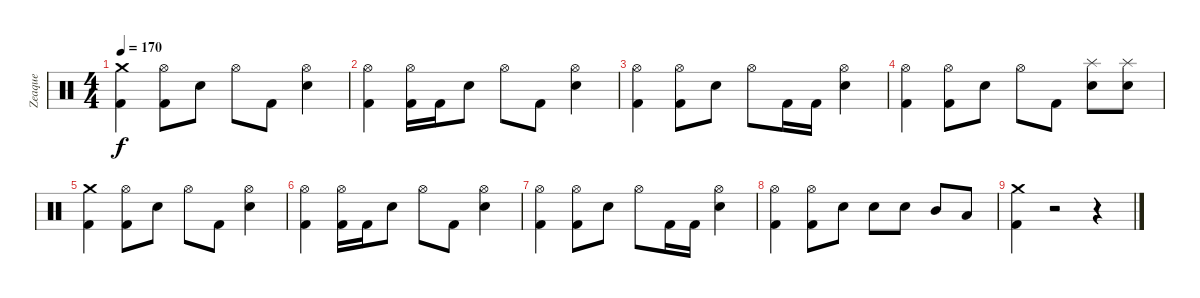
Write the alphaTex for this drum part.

\track ("Zeaque" "Zeaque") {instrument percussion}
\staff {score}
\articulation defaults
\ts (4 4)
\tempo 170
\clef neutral
\ks c
("Crash medium (hit)" "Kick (hit) 2").4{dy f} ("Hi-Hat (open)" "Kick (hit) 2").8 "Electric Snare (hit)".8 "Hi-Hat (open)".8 "Kick (hit) 2".8 ("Hi-Hat (open)" "Electric Snare (hit)").4 |
("Hi-Hat (open)" "Kick (hit) 2").4 ("Hi-Hat (open)" "Kick (hit) 2").16 "Kick (hit) 2".16 "Electric Snare (hit)".8 "Hi-Hat (open)".8 "Kick (hit) 2".8 ("Hi-Hat (open)" "Electric Snare (hit)").4 |
("Hi-Hat (open)" "Kick (hit) 2").4 ("Hi-Hat (open)" "Kick (hit) 2").8 "Electric Snare (hit)".8 "Hi-Hat (open)".8 "Kick (hit) 2".16 "Kick (hit) 2".16 ("Hi-Hat (open)" "Electric Snare (hit)").4 |
("Hi-Hat (open)" "Kick (hit) 2").4 ("Hi-Hat (open)" "Kick (hit) 2").8 "Electric Snare (hit)".8 "Hi-Hat (open)".8 "Kick (hit) 2".8 ("Splash (hit)" "Electric Snare (hit)").8 ("Splash (hit)" "Electric Snare (hit)").8 |
("Crash medium (hit)" "Kick (hit) 2").4 ("Hi-Hat (open)" "Kick (hit) 2").8 "Electric Snare (hit)".8 "Hi-Hat (open)".8 "Kick (hit) 2".8 ("Hi-Hat (open)" "Electric Snare (hit)").4 |
("Hi-Hat (open)" "Kick (hit) 2").4 ("Hi-Hat (open)" "Kick (hit) 2").16 "Kick (hit) 2".16 "Electric Snare (hit)".8 "Hi-Hat (open)".8 "Kick (hit) 2".8 ("Hi-Hat (open)" "Electric Snare (hit)").4 |
("Hi-Hat (open)" "Kick (hit) 2").4 ("Hi-Hat (open)" "Kick (hit) 2").8 "Electric Snare (hit)".8 "Hi-Hat (open)".8 "Kick (hit) 2".16 "Kick (hit) 2".16 ("Hi-Hat (open)" "Electric Snare (hit)").4 |
("Hi-Hat (open)" "Kick (hit) 2").4 ("Hi-Hat (open)" "Kick (hit) 2").8 "Electric Snare (hit)".8 "Electric Snare (hit)".8 "Electric Snare (hit)".8 "Mid Tom (hit)".8 "Low Tom (hit)".8 |
("Crash medium (hit)" "Kick (hit) 2").4 r.2 r.4
